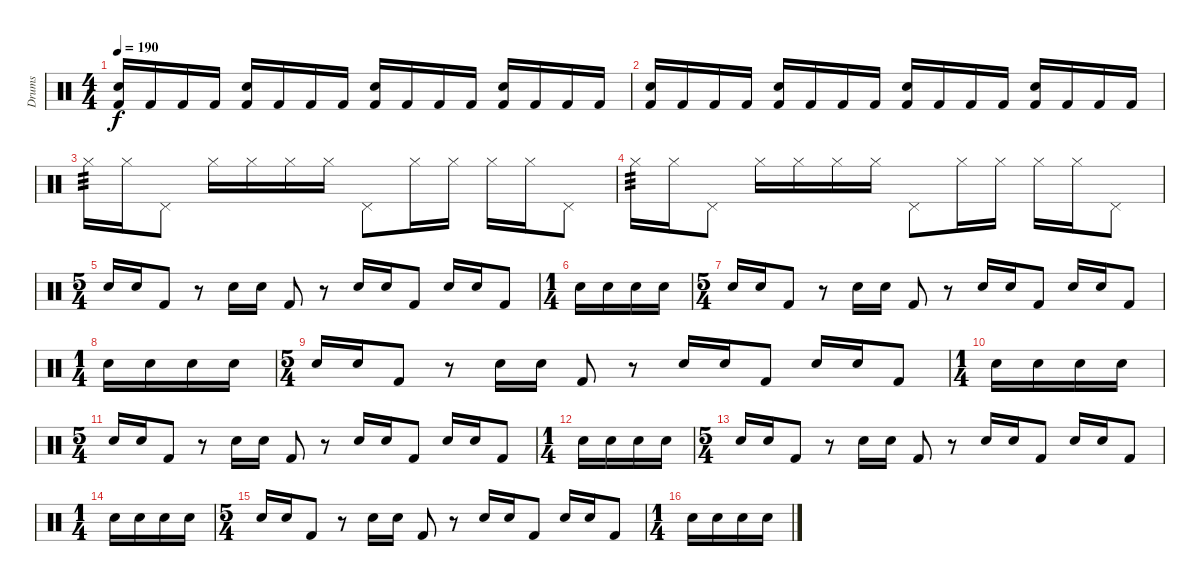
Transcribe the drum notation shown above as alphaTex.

\track ("Drums" "Drums") {instrument percussion}
\staff {score}
\articulation defaults
\ts (4 4)
\tempo 190
\clef neutral
\ks c
("Snare (hit) 2" "Kick (hit) 2").16{dy f} "Kick (hit) 2".16 "Kick (hit) 2".16 "Kick (hit) 2".16 ("Snare (hit) 2" "Kick (hit) 2").16 "Kick (hit) 2".16 "Kick (hit) 2".16 "Kick (hit) 2".16 ("Snare (hit) 2" "Kick (hit) 2").16 "Kick (hit) 2".16 "Kick (hit) 2".16 "Kick (hit) 2".16 ("Snare (hit) 2" "Kick (hit) 2").16 "Kick (hit) 2".16 "Kick (hit) 2".16 "Kick (hit) 2".16 |
("Snare (hit) 2" "Kick (hit) 2").16 "Kick (hit) 2".16 "Kick (hit) 2".16 "Kick (hit) 2".16 ("Snare (hit) 2" "Kick (hit) 2").16 "Kick (hit) 2".16 "Kick (hit) 2".16 "Kick (hit) 2".16 ("Snare (hit) 2" "Kick (hit) 2").16 "Kick (hit) 2".16 "Kick (hit) 2".16 "Kick (hit) 2".16 ("Snare (hit) 2" "Kick (hit) 2").16 "Kick (hit) 2".16 "Kick (hit) 2".16 "Kick (hit) 2".16 |
"Hi-Hat (closed)".16{tp 3} "Hi-Hat (closed)".16 "Pedal Hi-Hat (hit)".8 "Hi-Hat (closed)".16 "Hi-Hat (closed)".16 "Hi-Hat (closed)".16 "Hi-Hat (closed)".16 "Pedal Hi-Hat (hit)".8 "Hi-Hat (closed)".16 "Hi-Hat (closed)".16 "Hi-Hat (closed)".16 "Hi-Hat (closed)".16 "Pedal Hi-Hat (hit)".8 |
"Hi-Hat (closed)".16{tp 3} "Hi-Hat (closed)".16 "Pedal Hi-Hat (hit)".8 "Hi-Hat (closed)".16 "Hi-Hat (closed)".16 "Hi-Hat (closed)".16 "Hi-Hat (closed)".16 "Pedal Hi-Hat (hit)".8 "Hi-Hat (closed)".16 "Hi-Hat (closed)".16 "Hi-Hat (closed)".16 "Hi-Hat (closed)".16 "Pedal Hi-Hat (hit)".8 |
\ts (5 4)
"Snare (hit) 2".16 "Snare (hit) 2".16 "Kick (hit) 2".8 r.8 "Snare (hit) 2".16 "Snare (hit) 2".16 "Kick (hit) 2".8 r.8 "Snare (hit) 2".16 "Snare (hit) 2".16 "Kick (hit) 2".8 "Snare (hit) 2".16 "Snare (hit) 2".16 "Kick (hit) 2".8 |
\ts (1 4)
"Snare (hit) 2".16 "Snare (hit) 2".16 "Snare (hit) 2".16 "Snare (hit) 2".16 |
\ts (5 4)
"Snare (hit) 2".16 "Snare (hit) 2".16 "Kick (hit) 2".8 r.8 "Snare (hit) 2".16 "Snare (hit) 2".16 "Kick (hit) 2".8 r.8 "Snare (hit) 2".16 "Snare (hit) 2".16 "Kick (hit) 2".8 "Snare (hit) 2".16 "Snare (hit) 2".16 "Kick (hit) 2".8 |
\ts (1 4)
"Snare (hit) 2".16 "Snare (hit) 2".16 "Snare (hit) 2".16 "Snare (hit) 2".16 |
\ts (5 4)
"Snare (hit) 2".16 "Snare (hit) 2".16 "Kick (hit) 2".8 r.8 "Snare (hit) 2".16 "Snare (hit) 2".16 "Kick (hit) 2".8 r.8 "Snare (hit) 2".16 "Snare (hit) 2".16 "Kick (hit) 2".8 "Snare (hit) 2".16 "Snare (hit) 2".16 "Kick (hit) 2".8 |
\ts (1 4)
"Snare (hit) 2".16 "Snare (hit) 2".16 "Snare (hit) 2".16 "Snare (hit) 2".16 |
\ts (5 4)
"Snare (hit) 2".16 "Snare (hit) 2".16 "Kick (hit) 2".8 r.8 "Snare (hit) 2".16 "Snare (hit) 2".16 "Kick (hit) 2".8 r.8 "Snare (hit) 2".16 "Snare (hit) 2".16 "Kick (hit) 2".8 "Snare (hit) 2".16 "Snare (hit) 2".16 "Kick (hit) 2".8 |
\ts (1 4)
"Snare (hit) 2".16 "Snare (hit) 2".16 "Snare (hit) 2".16 "Snare (hit) 2".16 |
\ts (5 4)
"Snare (hit) 2".16 "Snare (hit) 2".16 "Kick (hit) 2".8 r.8 "Snare (hit) 2".16 "Snare (hit) 2".16 "Kick (hit) 2".8 r.8 "Snare (hit) 2".16 "Snare (hit) 2".16 "Kick (hit) 2".8 "Snare (hit) 2".16 "Snare (hit) 2".16 "Kick (hit) 2".8 |
\ts (1 4)
"Snare (hit) 2".16 "Snare (hit) 2".16 "Snare (hit) 2".16 "Snare (hit) 2".16 |
\ts (5 4)
"Snare (hit) 2".16 "Snare (hit) 2".16 "Kick (hit) 2".8 r.8 "Snare (hit) 2".16 "Snare (hit) 2".16 "Kick (hit) 2".8 r.8 "Snare (hit) 2".16 "Snare (hit) 2".16 "Kick (hit) 2".8 "Snare (hit) 2".16 "Snare (hit) 2".16 "Kick (hit) 2".8 |
\ts (1 4)
"Snare (hit) 2".16 "Snare (hit) 2".16 "Snare (hit) 2".16 "Snare (hit) 2".16
